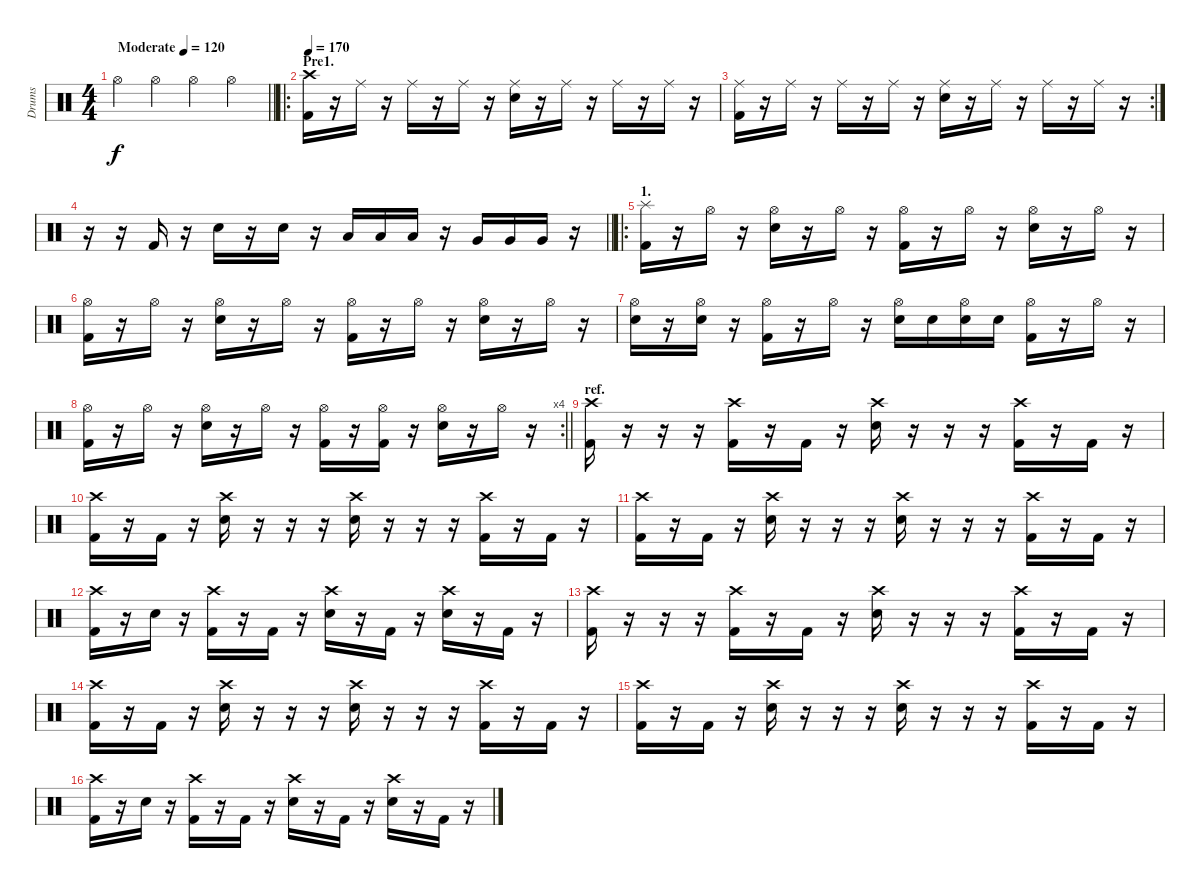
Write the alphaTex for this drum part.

\track ("Drums" "Drums") {instrument percussion}
\staff {score}
\articulation defaults
\ts (4 4)
\tempo (120 "Moderate")
\clef neutral
\barLineRight lightlight
\ks c "Hi-Hat (open)".4{dy f} "Hi-Hat (open)".4 "Hi-Hat (open)".4 "Hi-Hat (open)".4
|
\ro
\section ("" "Pre1.")
\tempo 170
("Crash high (hit)" "Kick (hit) 2").16 r.16 "Ride (middle)".16 r.16 "Ride (middle)".16 r.16 "Ride (middle)".16 r.16 ("Ride (middle)" "Electric Snare (hit)").16 r.16 "Ride (middle)".16 r.16 "Ride (middle)".16 r.16 "Ride (middle)".16 r.16 |
\rc 2
("Ride (middle)" "Kick (hit) 2").16 r.16 "Ride (middle)".16 r.16 "Ride (middle)".16 r.16 "Ride (middle)".16 r.16 ("Ride (middle)" "Electric Snare (hit)").16 r.16 "Ride (middle)".16 r.16 "Ride (middle)".16 r.16 "Ride (middle)".16 r.16 |
\barLineRight lightlight
r.16 r.16 "Kick (hit) 2".16 r.16 "Electric Snare (hit)".16 r.16 "Electric Snare (hit)".16 r.16 "Low Tom (hit)".16 "Low Tom (hit)".16 "Low Tom (hit)".16 r.16 "Very Low Tom (hit)".16 "Very Low Tom (hit)".16 "Very Low Tom (hit)".16 r.16 |
\ro
\section ("" "1.")
("Splash (hit)" "Kick (hit) 2").16 r.16 "Hi-Hat (open)".16 r.16 ("Hi-Hat (open)" "Electric Snare (hit)").16 r.16 "Hi-Hat (open)".16 r.16 ("Hi-Hat (open)" "Kick (hit) 2").16 r.16 "Hi-Hat (open)".16 r.16 ("Hi-Hat (open)" "Electric Snare (hit)").16 r.16 "Hi-Hat (open)".16 r.16 |
("Hi-Hat (open)" "Kick (hit) 2").16 r.16 "Hi-Hat (open)".16 r.16 ("Hi-Hat (open)" "Electric Snare (hit)").16 r.16 "Hi-Hat (open)".16 r.16 ("Hi-Hat (open)" "Kick (hit) 2").16 r.16 "Hi-Hat (open)".16 r.16 ("Hi-Hat (open)" "Electric Snare (hit)").16 r.16 "Hi-Hat (open)".16 r.16 |
("Hi-Hat (open)" "Electric Snare (hit)").16 r.16 ("Hi-Hat (open)" "Electric Snare (hit)").16 r.16 ("Hi-Hat (open)" "Kick (hit) 2").16 r.16 "Hi-Hat (open)".16 r.16 ("Hi-Hat (open)" "Electric Snare (hit)").16 "Electric Snare (hit)".16 ("Hi-Hat (open)" "Electric Snare (hit)").16 "Electric Snare (hit)".16 ("Hi-Hat (open)" "Kick (hit) 2").16 r.16 "Hi-Hat (open)".16 r.16 |
\rc 4
\barLineRight lightlight
("Hi-Hat (open)" "Kick (hit) 2").16 r.16 "Hi-Hat (open)".16 r.16 ("Hi-Hat (open)" "Electric Snare (hit)").16 r.16 "Hi-Hat (open)".16 r.16 ("Hi-Hat (open)" "Kick (hit) 2").16 r.16 ("Hi-Hat (open)" "Kick (hit) 2").16 r.16 ("Hi-Hat (open)" "Electric Snare (hit)").16 r.16 "Hi-Hat (open)".16 r.16 |
\section ("" "ref.")
("Crash high (hit)" "Kick (hit) 2").16 r.16 r.16 r.16 ("Crash high (hit)" "Kick (hit) 2").16 r.16 "Kick (hit) 2".16 r.16 ("Crash high (hit)" "Electric Snare (hit)").16 r.16 r.16 r.16 ("Crash high (hit)" "Kick (hit) 2").16 r.16 "Kick (hit) 2".16 r.16 |
("Crash high (hit)" "Kick (hit) 2").16 r.16 "Kick (hit) 2".16 r.16 ("Crash high (hit)" "Electric Snare (hit)").16 r.16 r.16 r.16 ("Crash high (hit)" "Electric Snare (hit)").16 r.16 r.16 r.16 ("Crash high (hit)" "Kick (hit) 2").16 r.16 "Kick (hit) 2".16 r.16 |
("Crash high (hit)" "Kick (hit) 2").16 r.16 "Kick (hit) 2".16 r.16 ("Crash high (hit)" "Electric Snare (hit)").16 r.16 r.16 r.16 ("Crash high (hit)" "Electric Snare (hit)").16 r.16 r.16 r.16 ("Crash high (hit)" "Kick (hit) 2").16 r.16 "Kick (hit) 2".16 r.16 |
("Crash high (hit)" "Kick (hit) 2").16 r.16 "Electric Snare (hit)".16 r.16 ("Crash high (hit)" "Kick (hit) 2").16 r.16 "Kick (hit) 2".16 r.16 ("Crash high (hit)" "Electric Snare (hit)").16 r.16 "Kick (hit) 2".16 r.16 ("Crash high (hit)" "Electric Snare (hit)").16 r.16 "Kick (hit) 2".16 r.16 |
("Crash high (hit)" "Kick (hit) 2").16 r.16 r.16 r.16 ("Crash high (hit)" "Kick (hit) 2").16 r.16 "Kick (hit) 2".16 r.16 ("Crash high (hit)" "Electric Snare (hit)").16 r.16 r.16 r.16 ("Crash high (hit)" "Kick (hit) 2").16 r.16 "Kick (hit) 2".16 r.16 |
("Crash high (hit)" "Kick (hit) 2").16 r.16 "Kick (hit) 2".16 r.16 ("Crash high (hit)" "Electric Snare (hit)").16 r.16 r.16 r.16 ("Crash high (hit)" "Electric Snare (hit)").16 r.16 r.16 r.16 ("Crash high (hit)" "Kick (hit) 2").16 r.16 "Kick (hit) 2".16 r.16 |
("Crash high (hit)" "Kick (hit) 2").16 r.16 "Kick (hit) 2".16 r.16 ("Crash high (hit)" "Electric Snare (hit)").16 r.16 r.16 r.16 ("Crash high (hit)" "Electric Snare (hit)").16 r.16 r.16 r.16 ("Crash high (hit)" "Kick (hit) 2").16 r.16 "Kick (hit) 2".16 r.16 |
("Crash high (hit)" "Kick (hit) 2").16 r.16 "Electric Snare (hit)".16 r.16 ("Crash high (hit)" "Kick (hit) 2").16 r.16 "Kick (hit) 2".16 r.16 ("Crash high (hit)" "Electric Snare (hit)").16 r.16 "Kick (hit) 2".16 r.16 ("Crash high (hit)" "Electric Snare (hit)").16 r.16 "Kick (hit) 2".16 r.16
